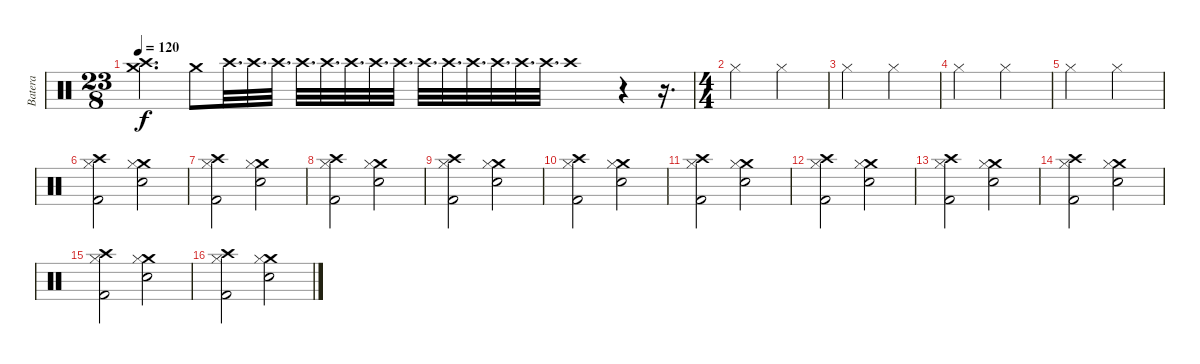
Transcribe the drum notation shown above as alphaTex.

\track ("Batera" "Batera") {instrument percussion}
\staff {score}
\articulation defaults
\ts (23 8)
\tempo 120
\clef neutral
\ks c
("Crash medium (hit)" "Crash high (hit)").2{d dy f} "Crash medium (hit)".8 "Crash high (hit)".32{d} "Crash high (hit)".32{d} "Crash high (hit)".32{d} "Crash high (hit)".32{d} "Crash high (hit)".32{d} "Crash high (hit)".32{d} "Crash high (hit)".32{d} "Crash high (hit)".32{d} "Crash high (hit)".32{d} "Crash high (hit)".32{d} "Crash high (hit)".32{d} "Crash high (hit)".32{d} "Crash high (hit)".32{d} "Crash high (hit)".32{d} "Crash high (hit)".1 r.4 r.16{d} |
\ts (4 4)
"Hi-Hat (closed)".2 "Hi-Hat (closed)".2 |
"Hi-Hat (closed)".2 "Hi-Hat (closed)".2 |
"Hi-Hat (closed)".2 "Hi-Hat (closed)".2 |
"Hi-Hat (closed)".2 "Hi-Hat (closed)".2 |
("Kick (hit) 2" "Crash high (hit)" "Hi-Hat (closed)").2 ("Crash medium (hit)" "Electric Snare (hit)" "Hi-Hat (closed)").2 |
("Kick (hit) 2" "Crash high (hit)" "Hi-Hat (closed)").2 ("Crash medium (hit)" "Electric Snare (hit)" "Hi-Hat (closed)").2 |
("Kick (hit) 2" "Crash high (hit)" "Hi-Hat (closed)").2 ("Crash medium (hit)" "Electric Snare (hit)" "Hi-Hat (closed)").2 |
("Kick (hit) 2" "Crash high (hit)" "Hi-Hat (closed)").2 ("Crash medium (hit)" "Electric Snare (hit)" "Hi-Hat (closed)").2 |
("Kick (hit) 2" "Crash high (hit)" "Hi-Hat (closed)").2 ("Crash medium (hit)" "Electric Snare (hit)" "Hi-Hat (closed)").2 |
("Kick (hit) 2" "Crash high (hit)" "Hi-Hat (closed)").2 ("Crash medium (hit)" "Electric Snare (hit)" "Hi-Hat (closed)").2 |
("Kick (hit) 2" "Crash high (hit)" "Hi-Hat (closed)").2 ("Crash medium (hit)" "Electric Snare (hit)" "Hi-Hat (closed)").2 |
("Kick (hit) 2" "Crash high (hit)" "Hi-Hat (closed)").2 ("Crash medium (hit)" "Electric Snare (hit)" "Hi-Hat (closed)").2 |
("Kick (hit) 2" "Crash high (hit)" "Hi-Hat (closed)").2 ("Crash medium (hit)" "Electric Snare (hit)" "Hi-Hat (closed)").2 |
("Kick (hit) 2" "Crash high (hit)" "Hi-Hat (closed)").2 ("Crash medium (hit)" "Electric Snare (hit)" "Hi-Hat (closed)").2 |
("Kick (hit) 2" "Crash high (hit)" "Hi-Hat (closed)").2 ("Crash medium (hit)" "Electric Snare (hit)" "Hi-Hat (closed)").2
